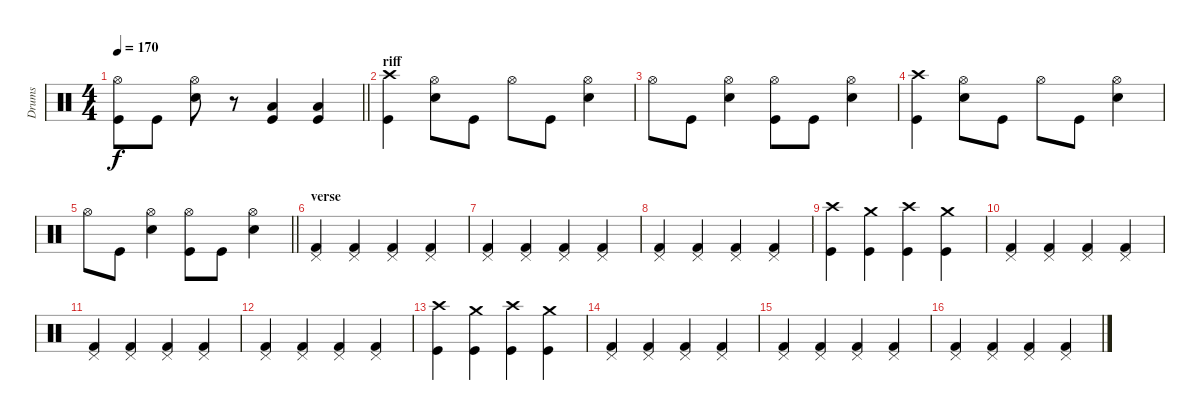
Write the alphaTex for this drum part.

\track ("Drums" "Drums") {instrument percussion}
\staff {score}
\articulation defaults
\ts (4 4)
\tempo 170
\clef neutral
\barLineRight lightlight
\ks c
("Hi-Hat (open)" "Kick (hit)").8{dy f} "Kick (hit)".8 ("Snare (hit) 2" "Hi-Hat (open)").8 r.8 ("Low Tom (hit)" "Kick (hit)").4 ("Low Tom (hit)" "Kick (hit)").4 |
\section ("" "riff")
("Crash high (hit)" "Kick (hit)").4 ("Snare (hit) 2" "Hi-Hat (open)").8 "Kick (hit)".8 "Hi-Hat (open)".8 "Kick (hit)".8 ("Snare (hit) 2" "Hi-Hat (open)").4 |
"Hi-Hat (open)".8 "Kick (hit)".8 ("Snare (hit) 2" "Hi-Hat (open)").4 ("Hi-Hat (open)" "Kick (hit)").8 "Kick (hit)".8 ("Snare (hit) 2" "Hi-Hat (open)").4 |
("Crash high (hit)" "Kick (hit)").4 ("Snare (hit) 2" "Hi-Hat (open)").8 "Kick (hit)".8 "Hi-Hat (open)".8 "Kick (hit)".8 ("Snare (hit) 2" "Hi-Hat (open)").4 |
\barLineRight lightlight "Hi-Hat (open)".8 "Kick (hit)".8
("Snare (hit) 2" "Hi-Hat (open)").4 ("Hi-Hat (open)" "Kick (hit)").8 "Kick (hit)".8 ("Snare (hit) 2" "Hi-Hat (open)").4 |
\section ("" "verse")
("Kick (hit) 2" "Pedal Hi-Hat (hit)").4 ("Kick (hit) 2" "Pedal Hi-Hat (hit)").4 ("Kick (hit) 2" "Pedal Hi-Hat (hit)").4 ("Kick (hit) 2" "Pedal Hi-Hat (hit)").4 |
("Kick (hit) 2" "Pedal Hi-Hat (hit)").4 ("Kick (hit) 2" "Pedal Hi-Hat (hit)").4 ("Kick (hit) 2" "Pedal Hi-Hat (hit)").4 ("Kick (hit) 2" "Pedal Hi-Hat (hit)").4 |
("Kick (hit) 2" "Pedal Hi-Hat (hit)").4 ("Kick (hit) 2" "Pedal Hi-Hat (hit)").4 ("Kick (hit) 2" "Pedal Hi-Hat (hit)").4 ("Kick (hit) 2" "Pedal Hi-Hat (hit)").4 |
("Crash high (hit)" "Kick (hit)").4 ("Crash medium (hit)" "Kick (hit)").4 ("Crash high (hit)" "Kick (hit)").4 ("Crash medium (hit)" "Kick (hit)").4 |
("Kick (hit) 2" "Pedal Hi-Hat (hit)").4 ("Kick (hit) 2" "Pedal Hi-Hat (hit)").4 ("Kick (hit) 2" "Pedal Hi-Hat (hit)").4 ("Kick (hit) 2" "Pedal Hi-Hat (hit)").4 |
("Kick (hit) 2" "Pedal Hi-Hat (hit)").4 ("Kick (hit) 2" "Pedal Hi-Hat (hit)").4 ("Kick (hit) 2" "Pedal Hi-Hat (hit)").4 ("Kick (hit) 2" "Pedal Hi-Hat (hit)").4 |
("Kick (hit) 2" "Pedal Hi-Hat (hit)").4 ("Kick (hit) 2" "Pedal Hi-Hat (hit)").4 ("Kick (hit) 2" "Pedal Hi-Hat (hit)").4 ("Kick (hit) 2" "Pedal Hi-Hat (hit)").4 |
("Crash high (hit)" "Kick (hit)").4 ("Crash medium (hit)" "Kick (hit)").4 ("Crash high (hit)" "Kick (hit)").4 ("Crash medium (hit)" "Kick (hit)").4 |
("Kick (hit) 2" "Pedal Hi-Hat (hit)").4 ("Kick (hit) 2" "Pedal Hi-Hat (hit)").4 ("Kick (hit) 2" "Pedal Hi-Hat (hit)").4 ("Kick (hit) 2" "Pedal Hi-Hat (hit)").4 |
("Kick (hit) 2" "Pedal Hi-Hat (hit)").4 ("Kick (hit) 2" "Pedal Hi-Hat (hit)").4 ("Kick (hit) 2" "Pedal Hi-Hat (hit)").4 ("Kick (hit) 2" "Pedal Hi-Hat (hit)").4 |
("Kick (hit) 2" "Pedal Hi-Hat (hit)").4 ("Kick (hit) 2" "Pedal Hi-Hat (hit)").4 ("Kick (hit) 2" "Pedal Hi-Hat (hit)").4 ("Kick (hit) 2" "Pedal Hi-Hat (hit)").4
